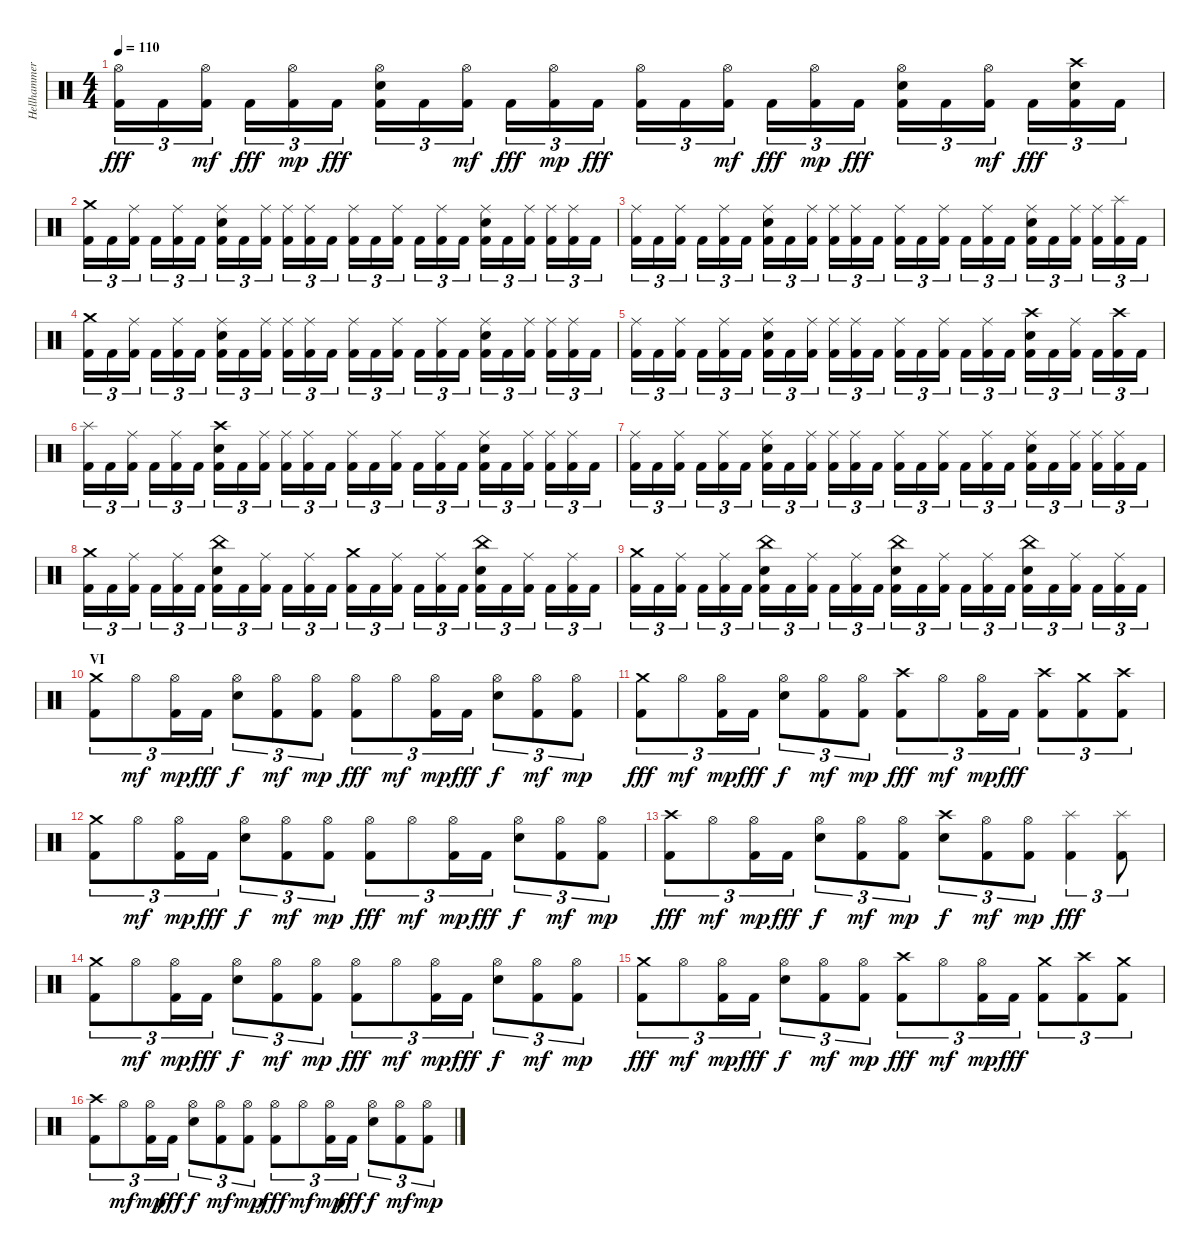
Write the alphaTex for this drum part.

\track ("Hellhammer" "Hellhammer") {instrument percussion}
\staff {score}
\articulation defaults
\ts (4 4)
\tempo 110
\clef neutral
\ks c
("Kick (hit) 2" "Hi-Hat (open)").16{tu (3 2) dy fff} "Kick (hit) 2".16{tu (3 2)} ("Kick (hit) 2" "Hi-Hat (open)").16{tu (3 2) dy mf} "Kick (hit) 2".16{tu (3 2) dy fff} ("Kick (hit) 2" "Hi-Hat (open)").16{tu (3 2) dy mp} "Kick (hit) 2".16{tu (3 2) dy fff} ("Kick (hit) 2" "Electric Snare (hit)" "Hi-Hat (open)").16{tu (3 2)} "Kick (hit) 2".16{tu (3 2)} ("Kick (hit) 2" "Hi-Hat (open)").16{tu (3 2) dy mf} "Kick (hit) 2".16{tu (3 2) dy fff} ("Kick (hit) 2" "Hi-Hat (open)").16{tu (3 2) dy mp} "Kick (hit) 2".16{tu (3 2) dy fff} ("Kick (hit) 2" "Hi-Hat (open)").16{tu (3 2)} "Kick (hit) 2".16{tu (3 2)} ("Kick (hit) 2" "Hi-Hat (open)").16{tu (3 2) dy mf} "Kick (hit) 2".16{tu (3 2) dy fff} ("Kick (hit) 2" "Hi-Hat (open)").16{tu (3 2) dy mp} "Kick (hit) 2".16{tu (3 2) dy fff} ("Kick (hit) 2" "Electric Snare (hit)" "Hi-Hat (open)").16{tu (3 2)} "Kick (hit) 2".16{tu (3 2)} ("Kick (hit) 2" "Hi-Hat (open)").16{tu (3 2) dy mf} "Kick (hit) 2".16{tu (3 2) dy fff} ("Kick (hit) 2" "Electric Snare (hit)" "Crash high (hit)").16{tu (3 2)} "Kick (hit) 2".16{tu (3 2)} |
("Kick (hit) 2" "Crash medium (hit)").16{tu (3 2)} "Kick (hit) 2".16{tu (3 2)} ("Kick (hit) 2" "Ride (middle)").16{tu (3 2)} "Kick (hit) 2".16{tu (3 2)} ("Kick (hit) 2" "Ride (middle)").16{tu (3 2)} "Kick (hit) 2".16{tu (3 2)} ("Kick (hit) 2" "Electric Snare (hit)" "Ride (middle)").16{tu (3 2)} "Kick (hit) 2".16{tu (3 2)} ("Kick (hit) 2" "Ride (middle)").16{tu (3 2)} ("Kick (hit) 2" "Ride (middle)").16{tu (3 2)} ("Kick (hit) 2" "Ride (middle)").16{tu (3 2)} "Kick (hit) 2".16{tu (3 2)} ("Kick (hit) 2" "Ride (middle)").16{tu (3 2)} "Kick (hit) 2".16{tu (3 2)} ("Kick (hit) 2" "Ride (middle)").16{tu (3 2)} "Kick (hit) 2".16{tu (3 2)} ("Kick (hit) 2" "Ride (middle)").16{tu (3 2)} "Kick (hit) 2".16{tu (3 2)} ("Kick (hit) 2" "Electric Snare (hit)" "Ride (middle)").16{tu (3 2)} "Kick (hit) 2".16{tu (3 2)} ("Kick (hit) 2" "Ride (middle)").16{tu (3 2)} ("Kick (hit) 2" "Ride (middle)").16{tu (3 2)} ("Kick (hit) 2" "Ride (middle)").16{tu (3 2)} "Kick (hit) 2".16{tu (3 2)} |
("Kick (hit) 2" "Ride (middle)").16{tu (3 2)} "Kick (hit) 2".16{tu (3 2)} ("Kick (hit) 2" "Ride (middle)").16{tu (3 2)} "Kick (hit) 2".16{tu (3 2)} ("Kick (hit) 2" "Ride (middle)").16{tu (3 2)} "Kick (hit) 2".16{tu (3 2)} ("Kick (hit) 2" "Electric Snare (hit)" "Ride (middle)").16{tu (3 2)} "Kick (hit) 2".16{tu (3 2)} ("Kick (hit) 2" "Ride (middle)").16{tu (3 2)} ("Kick (hit) 2" "Ride (middle)").16{tu (3 2)} ("Kick (hit) 2" "Ride (middle)").16{tu (3 2)} "Kick (hit) 2".16{tu (3 2)} ("Kick (hit) 2" "Ride (middle)").16{tu (3 2)} "Kick (hit) 2".16{tu (3 2)} ("Kick (hit) 2" "Ride (middle)").16{tu (3 2)} "Kick (hit) 2".16{tu (3 2)} ("Kick (hit) 2" "Ride (middle)").16{tu (3 2)} "Kick (hit) 2".16{tu (3 2)} ("Kick (hit) 2" "Electric Snare (hit)" "Ride (middle)").16{tu (3 2)} "Kick (hit) 2".16{tu (3 2)} ("Kick (hit) 2" "Ride (middle)").16{tu (3 2)} ("Kick (hit) 2" "Ride (middle)").16{tu (3 2)} ("Kick (hit) 2" "Splash (hit)").16{tu (3 2)} "Kick (hit) 2".16{tu (3 2)} |
("Kick (hit) 2" "Crash medium (hit)").16{tu (3 2)} "Kick (hit) 2".16{tu (3 2)} ("Kick (hit) 2" "Ride (middle)").16{tu (3 2)} "Kick (hit) 2".16{tu (3 2)} ("Kick (hit) 2" "Ride (middle)").16{tu (3 2)} "Kick (hit) 2".16{tu (3 2)} ("Kick (hit) 2" "Electric Snare (hit)" "Ride (middle)").16{tu (3 2)} "Kick (hit) 2".16{tu (3 2)} ("Kick (hit) 2" "Ride (middle)").16{tu (3 2)} ("Kick (hit) 2" "Ride (middle)").16{tu (3 2)} ("Kick (hit) 2" "Ride (middle)").16{tu (3 2)} "Kick (hit) 2".16{tu (3 2)} ("Kick (hit) 2" "Ride (middle)").16{tu (3 2)} "Kick (hit) 2".16{tu (3 2)} ("Kick (hit) 2" "Ride (middle)").16{tu (3 2)} "Kick (hit) 2".16{tu (3 2)} ("Kick (hit) 2" "Ride (middle)").16{tu (3 2)} "Kick (hit) 2".16{tu (3 2)} ("Kick (hit) 2" "Electric Snare (hit)" "Ride (middle)").16{tu (3 2)} "Kick (hit) 2".16{tu (3 2)} ("Kick (hit) 2" "Ride (middle)").16{tu (3 2)} ("Kick (hit) 2" "Ride (middle)").16{tu (3 2)} ("Kick (hit) 2" "Ride (middle)").16{tu (3 2)} "Kick (hit) 2".16{tu (3 2)} |
("Kick (hit) 2" "Ride (middle)").16{tu (3 2)} "Kick (hit) 2".16{tu (3 2)} ("Kick (hit) 2" "Ride (middle)").16{tu (3 2)} "Kick (hit) 2".16{tu (3 2)} ("Kick (hit) 2" "Ride (middle)").16{tu (3 2)} "Kick (hit) 2".16{tu (3 2)} ("Kick (hit) 2" "Electric Snare (hit)" "Ride (middle)").16{tu (3 2)} "Kick (hit) 2".16{tu (3 2)} ("Kick (hit) 2" "Ride (middle)").16{tu (3 2)} ("Kick (hit) 2" "Ride (middle)").16{tu (3 2)} ("Kick (hit) 2" "Ride (middle)").16{tu (3 2)} "Kick (hit) 2".16{tu (3 2)} ("Kick (hit) 2" "Ride (middle)").16{tu (3 2)} "Kick (hit) 2".16{tu (3 2)} ("Kick (hit) 2" "Ride (middle)").16{tu (3 2)} "Kick (hit) 2".16{tu (3 2)} ("Kick (hit) 2" "Ride (middle)").16{tu (3 2)} "Kick (hit) 2".16{tu (3 2)} ("Kick (hit) 2" "Electric Snare (hit)" "Crash high (hit)").16{tu (3 2)} "Kick (hit) 2".16{tu (3 2)} ("Kick (hit) 2" "Ride (middle)").16{tu (3 2)} "Kick (hit) 2".16{tu (3 2)} ("Kick (hit) 2" "Crash high (hit)").16{tu (3 2)} "Kick (hit) 2".16{tu (3 2)} |
("Kick (hit) 2" "Splash (hit)").16{tu (3 2)} "Kick (hit) 2".16{tu (3 2)} ("Kick (hit) 2" "Ride (middle)").16{tu (3 2)} "Kick (hit) 2".16{tu (3 2)} ("Kick (hit) 2" "Ride (middle)").16{tu (3 2)} "Kick (hit) 2".16{tu (3 2)} ("Kick (hit) 2" "Electric Snare (hit)" "Crash high (hit)").16{tu (3 2)} "Kick (hit) 2".16{tu (3 2)} ("Kick (hit) 2" "Ride (middle)").16{tu (3 2)} ("Kick (hit) 2" "Ride (middle)").16{tu (3 2)} ("Kick (hit) 2" "Ride (middle)").16{tu (3 2)} "Kick (hit) 2".16{tu (3 2)} ("Kick (hit) 2" "Ride (middle)").16{tu (3 2)} "Kick (hit) 2".16{tu (3 2)} ("Kick (hit) 2" "Ride (middle)").16{tu (3 2)} "Kick (hit) 2".16{tu (3 2)} ("Kick (hit) 2" "Ride (middle)").16{tu (3 2)} "Kick (hit) 2".16{tu (3 2)} ("Kick (hit) 2" "Electric Snare (hit)" "Ride (middle)").16{tu (3 2)} "Kick (hit) 2".16{tu (3 2)} ("Kick (hit) 2" "Ride (middle)").16{tu (3 2)} ("Kick (hit) 2" "Ride (middle)").16{tu (3 2)} ("Kick (hit) 2" "Ride (middle)").16{tu (3 2)} "Kick (hit) 2".16{tu (3 2)} |
("Kick (hit) 2" "Ride (middle)").16{tu (3 2)} "Kick (hit) 2".16{tu (3 2)} ("Kick (hit) 2" "Ride (middle)").16{tu (3 2)} "Kick (hit) 2".16{tu (3 2)} ("Kick (hit) 2" "Ride (middle)").16{tu (3 2)} "Kick (hit) 2".16{tu (3 2)} ("Kick (hit) 2" "Electric Snare (hit)" "Ride (middle)").16{tu (3 2)} "Kick (hit) 2".16{tu (3 2)} ("Kick (hit) 2" "Ride (middle)").16{tu (3 2)} ("Kick (hit) 2" "Ride (middle)").16{tu (3 2)} ("Kick (hit) 2" "Ride (middle)").16{tu (3 2)} "Kick (hit) 2".16{tu (3 2)} ("Kick (hit) 2" "Ride (middle)").16{tu (3 2)} "Kick (hit) 2".16{tu (3 2)} ("Kick (hit) 2" "Ride (middle)").16{tu (3 2)} "Kick (hit) 2".16{tu (3 2)} ("Kick (hit) 2" "Ride (middle)").16{tu (3 2)} "Kick (hit) 2".16{tu (3 2)} ("Kick (hit) 2" "Electric Snare (hit)" "Ride (middle)").16{tu (3 2)} "Kick (hit) 2".16{tu (3 2)} ("Kick (hit) 2" "Ride (middle)").16{tu (3 2)} ("Kick (hit) 2" "Ride (middle)").16{tu (3 2)} ("Kick (hit) 2" "Ride (middle)").16{tu (3 2)} "Kick (hit) 2".16{tu (3 2)} |
("Kick (hit) 2" "Crash medium (hit)").16{tu (3 2)} "Kick (hit) 2".16{tu (3 2)} ("Kick (hit) 2" "Ride (middle)").16{tu (3 2)} "Kick (hit) 2".16{tu (3 2)} ("Kick (hit) 2" "Ride (middle)").16{tu (3 2)} "Kick (hit) 2".16{tu (3 2)} ("Kick (hit) 2" "Electric Snare (hit)" "China (hit)").16{tu (3 2)} "Kick (hit) 2".16{tu (3 2)} ("Kick (hit) 2" "Ride (middle)").16{tu (3 2)} "Kick (hit) 2".16{tu (3 2)} ("Kick (hit) 2" "Ride (middle)").16{tu (3 2)} "Kick (hit) 2".16{tu (3 2)} ("Kick (hit) 2" "Crash medium (hit)").16{tu (3 2)} "Kick (hit) 2".16{tu (3 2)} ("Kick (hit) 2" "Ride (middle)").16{tu (3 2)} "Kick (hit) 2".16{tu (3 2)} ("Kick (hit) 2" "Ride (middle)").16{tu (3 2)} "Kick (hit) 2".16{tu (3 2)} ("Kick (hit) 2" "Electric Snare (hit)" "China (hit)").16{tu (3 2)} "Kick (hit) 2".16{tu (3 2)} ("Kick (hit) 2" "Ride (middle)").16{tu (3 2)} "Kick (hit) 2".16{tu (3 2)} ("Kick (hit) 2" "Ride (middle)").16{tu (3 2)} "Kick (hit) 2".16{tu (3 2)} |
("Kick (hit) 2" "Crash medium (hit)").16{tu (3 2)} "Kick (hit) 2".16{tu (3 2)} ("Kick (hit) 2" "Ride (middle)").16{tu (3 2)} "Kick (hit) 2".16{tu (3 2)} ("Kick (hit) 2" "Ride (middle)").16{tu (3 2)} "Kick (hit) 2".16{tu (3 2)} ("Kick (hit) 2" "Electric Snare (hit)" "China (hit)").16{tu (3 2)} "Kick (hit) 2".16{tu (3 2)} ("Kick (hit) 2" "Ride (middle)").16{tu (3 2)} "Kick (hit) 2".16{tu (3 2)} ("Kick (hit) 2" "Ride (middle)").16{tu (3 2)} "Kick (hit) 2".16{tu (3 2)} ("Kick (hit) 2" "Electric Snare (hit)" "China (hit)").16{tu (3 2)} "Kick (hit) 2".16{tu (3 2)} ("Kick (hit) 2" "Ride (middle)").16{tu (3 2)} "Kick (hit) 2".16{tu (3 2)} ("Kick (hit) 2" "Ride (middle)").16{tu (3 2)} "Kick (hit) 2".16{tu (3 2)} ("Kick (hit) 2" "Electric Snare (hit)" "China (hit)").16{tu (3 2)} "Kick (hit) 2".16{tu (3 2)} ("Kick (hit) 2" "Ride (middle)").16{tu (3 2)} "Kick (hit) 2".16{tu (3 2)} ("Kick (hit) 2" "Ride (middle)").16{tu (3 2)} "Kick (hit) 2".16{tu (3 2)} |
\section ("" "VI")
("Kick (hit) 2" "Crash medium (hit)").8{tu (3 2)} "Hi-Hat (open)".8{tu (3 2) dy mf} ("Kick (hit) 2" "Hi-Hat (open)").16{tu (3 2) dy mp} "Kick (hit) 2".16{tu (3 2) dy fff} ("Electric Snare (hit)" "Hi-Hat (open)").8{tu (3 2) dy f} ("Kick (hit) 2" "Hi-Hat (open)").8{tu (3 2) dy mf} ("Kick (hit) 2" "Hi-Hat (open)").8{tu (3 2) dy mp} ("Kick (hit) 2" "Hi-Hat (open)").8{tu (3 2) dy fff} "Hi-Hat (open)".8{tu (3 2) dy mf} ("Kick (hit) 2" "Hi-Hat (open)").16{tu (3 2) dy mp} "Kick (hit) 2".16{tu (3 2) dy fff} ("Electric Snare (hit)" "Hi-Hat (open)").8{tu (3 2) dy f} ("Kick (hit) 2" "Hi-Hat (open)").8{tu (3 2) dy mf} ("Kick (hit) 2" "Hi-Hat (open)").8{tu (3 2) dy mp} |
("Kick (hit) 2" "Crash medium (hit)").8{tu (3 2) dy fff} "Hi-Hat (open)".8{tu (3 2) dy mf} ("Kick (hit) 2" "Hi-Hat (open)").16{tu (3 2) dy mp} "Kick (hit) 2".16{tu (3 2) dy fff} ("Electric Snare (hit)" "Hi-Hat (open)").8{tu (3 2) dy f} ("Kick (hit) 2" "Hi-Hat (open)").8{tu (3 2) dy mf} ("Kick (hit) 2" "Hi-Hat (open)").8{tu (3 2) dy mp} ("Kick (hit) 2" "Crash high (hit)").8{tu (3 2) dy fff} "Hi-Hat (open)".8{tu (3 2) dy mf} ("Kick (hit) 2" "Hi-Hat (open)").16{tu (3 2) dy mp} "Kick (hit) 2".16{tu (3 2) dy fff} ("Kick (hit) 2" "Crash high (hit)").8{tu (3 2)} ("Kick (hit) 2" "Crash medium (hit)").8{tu (3 2)} ("Kick (hit) 2" "Crash high (hit)").8{tu (3 2)} |
("Kick (hit) 2" "Crash medium (hit)").8{tu (3 2)} "Hi-Hat (open)".8{tu (3 2) dy mf} ("Kick (hit) 2" "Hi-Hat (open)").16{tu (3 2) dy mp} "Kick (hit) 2".16{tu (3 2) dy fff} ("Electric Snare (hit)" "Hi-Hat (open)").8{tu (3 2) dy f} ("Kick (hit) 2" "Hi-Hat (open)").8{tu (3 2) dy mf} ("Kick (hit) 2" "Hi-Hat (open)").8{tu (3 2) dy mp} ("Kick (hit) 2" "Hi-Hat (open)").8{tu (3 2) dy fff} "Hi-Hat (open)".8{tu (3 2) dy mf} ("Kick (hit) 2" "Hi-Hat (open)").16{tu (3 2) dy mp} "Kick (hit) 2".16{tu (3 2) dy fff} ("Electric Snare (hit)" "Hi-Hat (open)").8{tu (3 2) dy f} ("Kick (hit) 2" "Hi-Hat (open)").8{tu (3 2) dy mf} ("Kick (hit) 2" "Hi-Hat (open)").8{tu (3 2) dy mp} |
("Kick (hit) 2" "Crash high (hit)").8{tu (3 2) dy fff} "Hi-Hat (open)".8{tu (3 2) dy mf} ("Kick (hit) 2" "Hi-Hat (open)").16{tu (3 2) dy mp} "Kick (hit) 2".16{tu (3 2) dy fff} ("Electric Snare (hit)" "Hi-Hat (open)").8{tu (3 2) dy f} ("Kick (hit) 2" "Hi-Hat (open)").8{tu (3 2) dy mf} ("Kick (hit) 2" "Hi-Hat (open)").8{tu (3 2) dy mp} ("Electric Snare (hit)" "Crash high (hit)").8{tu (3 2) dy f} ("Kick (hit) 2" "Hi-Hat (open)").8{tu (3 2) dy mf} ("Kick (hit) 2" "Hi-Hat (open)").8{tu (3 2) dy mp} ("Kick (hit) 2" "Splash (hit)").4{tu (3 2) dy fff} ("Kick (hit) 2" "Splash (hit)").8{tu (3 2)} |
("Kick (hit) 2" "Crash medium (hit)").8{tu (3 2)} "Hi-Hat (open)".8{tu (3 2) dy mf} ("Kick (hit) 2" "Hi-Hat (open)").16{tu (3 2) dy mp} "Kick (hit) 2".16{tu (3 2) dy fff} ("Electric Snare (hit)" "Hi-Hat (open)").8{tu (3 2) dy f} ("Kick (hit) 2" "Hi-Hat (open)").8{tu (3 2) dy mf} ("Kick (hit) 2" "Hi-Hat (open)").8{tu (3 2) dy mp} ("Kick (hit) 2" "Hi-Hat (open)").8{tu (3 2) dy fff} "Hi-Hat (open)".8{tu (3 2) dy mf} ("Kick (hit) 2" "Hi-Hat (open)").16{tu (3 2) dy mp} "Kick (hit) 2".16{tu (3 2) dy fff} ("Electric Snare (hit)" "Hi-Hat (open)").8{tu (3 2) dy f} ("Kick (hit) 2" "Hi-Hat (open)").8{tu (3 2) dy mf} ("Kick (hit) 2" "Hi-Hat (open)").8{tu (3 2) dy mp} |
("Kick (hit) 2" "Crash medium (hit)").8{tu (3 2) dy fff} "Hi-Hat (open)".8{tu (3 2) dy mf} ("Kick (hit) 2" "Hi-Hat (open)").16{tu (3 2) dy mp} "Kick (hit) 2".16{tu (3 2) dy fff} ("Electric Snare (hit)" "Hi-Hat (open)").8{tu (3 2) dy f} ("Kick (hit) 2" "Hi-Hat (open)").8{tu (3 2) dy mf} ("Kick (hit) 2" "Hi-Hat (open)").8{tu (3 2) dy mp} ("Kick (hit) 2" "Crash high (hit)").8{tu (3 2) dy fff} "Hi-Hat (open)".8{tu (3 2) dy mf} ("Kick (hit) 2" "Hi-Hat (open)").16{tu (3 2) dy mp} "Kick (hit) 2".16{tu (3 2) dy fff} ("Kick (hit) 2" "Crash medium (hit)").8{tu (3 2)} ("Kick (hit) 2" "Crash high (hit)").8{tu (3 2)} ("Kick (hit) 2" "Crash medium (hit)").8{tu (3 2)} |
("Kick (hit) 2" "Crash high (hit)").8{tu (3 2)} "Hi-Hat (open)".8{tu (3 2) dy mf} ("Kick (hit) 2" "Hi-Hat (open)").16{tu (3 2) dy mp} "Kick (hit) 2".16{tu (3 2) dy fff} ("Electric Snare (hit)" "Hi-Hat (open)").8{tu (3 2) dy f} ("Kick (hit) 2" "Hi-Hat (open)").8{tu (3 2) dy mf} ("Kick (hit) 2" "Hi-Hat (open)").8{tu (3 2) dy mp} ("Kick (hit) 2" "Hi-Hat (open)").8{tu (3 2) dy fff} "Hi-Hat (open)".8{tu (3 2) dy mf} ("Kick (hit) 2" "Hi-Hat (open)").16{tu (3 2) dy mp} "Kick (hit) 2".16{tu (3 2) dy fff} ("Electric Snare (hit)" "Hi-Hat (open)").8{tu (3 2) dy f} ("Kick (hit) 2" "Hi-Hat (open)").8{tu (3 2) dy mf} ("Kick (hit) 2" "Hi-Hat (open)").8{tu (3 2) dy mp}
